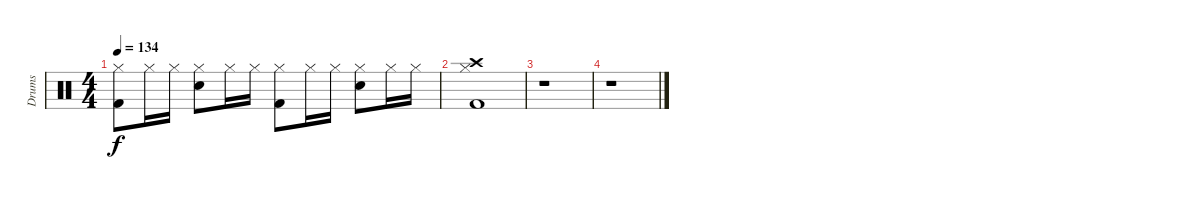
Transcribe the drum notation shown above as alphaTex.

\track ("Drums" "Drums") {instrument percussion}
\staff {score}
\articulation defaults
\ts (4 4)
\tempo 134
\clef neutral
\ks c
("Kick (hit) 2" "Hi-Hat (closed)").8{dy f} "Hi-Hat (closed)".16 "Hi-Hat (closed)".16 ("Snare (hit) 2" "Hi-Hat (closed)").8 "Hi-Hat (closed)".16 "Hi-Hat (closed)".16 ("Kick (hit) 2" "Hi-Hat (closed)").8 "Hi-Hat (closed)".16 "Hi-Hat (closed)".16 ("Snare (hit) 2" "Hi-Hat (closed)").8 "Hi-Hat (closed)".16 "Hi-Hat (closed)".16 |
("Kick (hit) 2" "Hi-Hat (closed)" "Crash high (hit)").1 |
r.1 |
r.1
